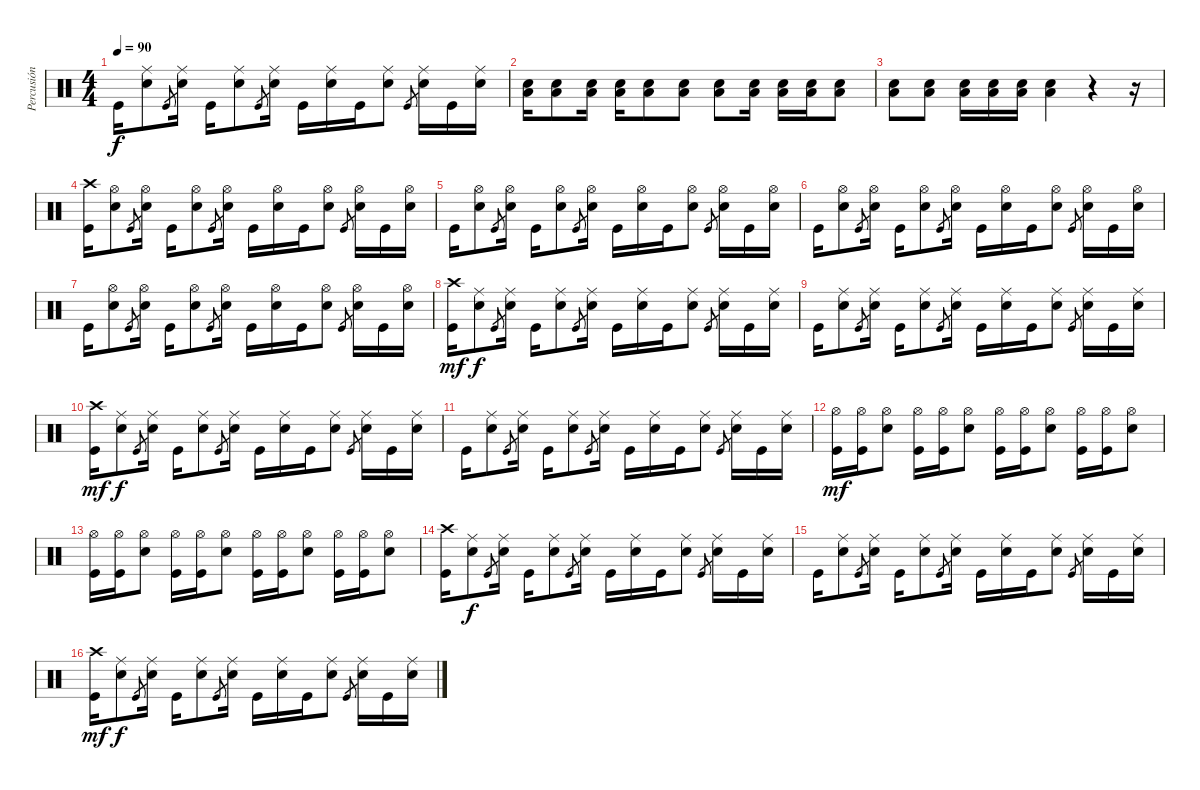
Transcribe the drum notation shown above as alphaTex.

\track ("Percusión" "Percusión") {instrument percussion}
\staff {score}
\articulation defaults
\ts (4 4)
\tempo 90
\clef neutral
\ks c "Kick (hit)".16{dy f}
("Snare (hit) 2" "Ride (middle)").8 "Kick (hit)".8{gr} ("Snare (hit) 2" "Ride (middle)").16 "Kick (hit)".16 ("Snare (hit) 2" "Ride (middle)").8 "Kick (hit)".8{gr} ("Snare (hit) 2" "Ride (middle)").16 "Kick (hit)".16 ("Snare (hit) 2" "Ride (middle)").16 "Kick (hit)".16 ("Snare (hit) 2" "Ride (middle)").8 "Kick (hit)".8{gr} ("Snare (hit) 2" "Ride (middle)").16 "Kick (hit)".16 ("Snare (hit) 2" "Ride (middle)").16 |
("Snare (hit) 2" "Low Floor Tom (hit)").16 ("Snare (hit) 2" "Low Floor Tom (hit)").8 ("Snare (hit) 2" "Low Floor Tom (hit)").16 ("Snare (hit) 2" "Low Floor Tom (hit)").16 ("Snare (hit) 2" "Low Floor Tom (hit)").8 ("Snare (hit) 2" "Low Floor Tom (hit)").8 ("Snare (hit) 2" "Low Floor Tom (hit)").8 ("Snare (hit) 2" "Low Floor Tom (hit)").16 ("Snare (hit) 2" "Low Floor Tom (hit)").16 ("Snare (hit) 2" "Low Floor Tom (hit)").16 ("Snare (hit) 2" "Low Floor Tom (hit)").8 |
("Snare (hit) 2" "Low Floor Tom (hit)").8 ("Snare (hit) 2" "Low Floor Tom (hit)").8 ("Snare (hit) 2" "Low Floor Tom (hit)").16 ("Snare (hit) 2" "Low Floor Tom (hit)").16 ("Snare (hit) 2" "Low Floor Tom (hit)").16 ("Snare (hit) 2" "Low Floor Tom (hit)").4 r.4 r.16 |
("Kick (hit)" "Crash high (hit)").16 ("Snare (hit) 2" "Hi-Hat (open)").8 "Kick (hit)".8{gr} ("Snare (hit) 2" "Hi-Hat (open)").16 "Kick (hit)".16 ("Snare (hit) 2" "Hi-Hat (open)").8 "Kick (hit)".8{gr} ("Snare (hit) 2" "Hi-Hat (open)").16 "Kick (hit)".16 ("Snare (hit) 2" "Hi-Hat (open)").16 "Kick (hit)".16 ("Snare (hit) 2" "Hi-Hat (open)").8 "Kick (hit)".8{gr} ("Snare (hit) 2" "Hi-Hat (open)").16 "Kick (hit)".16 ("Snare (hit) 2" "Hi-Hat (open)").16 |
"Kick (hit)".16 ("Snare (hit) 2" "Hi-Hat (open)").8 "Kick (hit)".8{gr} ("Snare (hit) 2" "Hi-Hat (open)").16 "Kick (hit)".16 ("Snare (hit) 2" "Hi-Hat (open)").8 "Kick (hit)".8{gr} ("Snare (hit) 2" "Hi-Hat (open)").16 "Kick (hit)".16 ("Snare (hit) 2" "Hi-Hat (open)").16 "Kick (hit)".16 ("Snare (hit) 2" "Hi-Hat (open)").8 "Kick (hit)".8{gr} ("Snare (hit) 2" "Hi-Hat (open)").16 "Kick (hit)".16 ("Snare (hit) 2" "Hi-Hat (open)").16 |
"Kick (hit)".16 ("Snare (hit) 2" "Hi-Hat (open)").8 "Kick (hit)".8{gr} ("Snare (hit) 2" "Hi-Hat (open)").16 "Kick (hit)".16 ("Snare (hit) 2" "Hi-Hat (open)").8 "Kick (hit)".8{gr} ("Snare (hit) 2" "Hi-Hat (open)").16 "Kick (hit)".16 ("Snare (hit) 2" "Hi-Hat (open)").16 "Kick (hit)".16 ("Snare (hit) 2" "Hi-Hat (open)").8 "Kick (hit)".8{gr} ("Snare (hit) 2" "Hi-Hat (open)").16 "Kick (hit)".16 ("Snare (hit) 2" "Hi-Hat (open)").16 |
"Kick (hit)".16 ("Snare (hit) 2" "Hi-Hat (open)").8 "Kick (hit)".8{gr} ("Snare (hit) 2" "Hi-Hat (open)").16 "Kick (hit)".16 ("Snare (hit) 2" "Hi-Hat (open)").8 "Kick (hit)".8{gr} ("Snare (hit) 2" "Hi-Hat (open)").16 "Kick (hit)".16 ("Snare (hit) 2" "Hi-Hat (open)").16 "Kick (hit)".16 ("Snare (hit) 2" "Hi-Hat (open)").8 "Kick (hit)".8{gr} ("Snare (hit) 2" "Hi-Hat (open)").16 "Kick (hit)".16 ("Snare (hit) 2" "Hi-Hat (open)").16 |
("Kick (hit)" "Crash high (hit)").16{dy mf} ("Snare (hit) 2" "Ride (middle)").8{dy f} "Kick (hit)".8{gr} ("Snare (hit) 2" "Ride (middle)").16 "Kick (hit)".16 ("Snare (hit) 2" "Ride (middle)").8 "Kick (hit)".8{gr} ("Snare (hit) 2" "Ride (middle)").16 "Kick (hit)".16 ("Snare (hit) 2" "Ride (middle)").16 "Kick (hit)".16 ("Snare (hit) 2" "Ride (middle)").8 "Kick (hit)".8{gr} ("Snare (hit) 2" "Ride (middle)").16 "Kick (hit)".16 ("Snare (hit) 2" "Ride (middle)").16 |
"Kick (hit)".16 ("Snare (hit) 2" "Ride (middle)").8 "Kick (hit)".8{gr} ("Snare (hit) 2" "Ride (middle)").16 "Kick (hit)".16 ("Snare (hit) 2" "Ride (middle)").8 "Kick (hit)".8{gr} ("Snare (hit) 2" "Ride (middle)").16 "Kick (hit)".16 ("Snare (hit) 2" "Ride (middle)").16 "Kick (hit)".16 ("Snare (hit) 2" "Ride (middle)").8 "Kick (hit)".8{gr} ("Snare (hit) 2" "Ride (middle)").16 "Kick (hit)".16 ("Snare (hit) 2" "Ride (middle)").16 |
("Kick (hit)" "Crash high (hit)").16{dy mf} ("Snare (hit) 2" "Ride (middle)").8{dy f} "Kick (hit)".8{gr} ("Snare (hit) 2" "Ride (middle)").16 "Kick (hit)".16 ("Snare (hit) 2" "Ride (middle)").8 "Kick (hit)".8{gr} ("Snare (hit) 2" "Ride (middle)").16 "Kick (hit)".16 ("Snare (hit) 2" "Ride (middle)").16 "Kick (hit)".16 ("Snare (hit) 2" "Ride (middle)").8 "Kick (hit)".8{gr} ("Snare (hit) 2" "Ride (middle)").16 "Kick (hit)".16 ("Snare (hit) 2" "Ride (middle)").16 |
"Kick (hit)".16 ("Snare (hit) 2" "Ride (middle)").8 "Kick (hit)".8{gr} ("Snare (hit) 2" "Ride (middle)").16 "Kick (hit)".16 ("Snare (hit) 2" "Ride (middle)").8 "Kick (hit)".8{gr} ("Snare (hit) 2" "Ride (middle)").16 "Kick (hit)".16 ("Snare (hit) 2" "Ride (middle)").16 "Kick (hit)".16 ("Snare (hit) 2" "Ride (middle)").8 "Kick (hit)".8{gr} ("Snare (hit) 2" "Ride (middle)").16 "Kick (hit)".16 ("Snare (hit) 2" "Ride (middle)").16 |
("Kick (hit)" "Hi-Hat (open)").16{dy mf} ("Kick (hit)" "Hi-Hat (open)").16 ("Snare (hit) 2" "Hi-Hat (open)").8 ("Kick (hit)" "Hi-Hat (open)").16 ("Kick (hit)" "Hi-Hat (open)").16 ("Snare (hit) 2" "Hi-Hat (open)").8 ("Kick (hit)" "Hi-Hat (open)").16 ("Kick (hit)" "Hi-Hat (open)").16 ("Snare (hit) 2" "Hi-Hat (open)").8 ("Kick (hit)" "Hi-Hat (open)").16 ("Kick (hit)" "Hi-Hat (open)").16 ("Snare (hit) 2" "Hi-Hat (open)").8 |
("Kick (hit)" "Hi-Hat (open)").16 ("Kick (hit)" "Hi-Hat (open)").16 ("Snare (hit) 2" "Hi-Hat (open)").8 ("Kick (hit)" "Hi-Hat (open)").16 ("Kick (hit)" "Hi-Hat (open)").16 ("Snare (hit) 2" "Hi-Hat (open)").8 ("Kick (hit)" "Hi-Hat (open)").16 ("Kick (hit)" "Hi-Hat (open)").16 ("Snare (hit) 2" "Hi-Hat (open)").8 ("Kick (hit)" "Hi-Hat (open)").16 ("Kick (hit)" "Hi-Hat (open)").16 ("Snare (hit) 2" "Hi-Hat (open)").8 |
("Kick (hit)" "Crash high (hit)").16 ("Snare (hit) 2" "Ride (middle)").8{dy f} "Kick (hit)".8{gr} ("Snare (hit) 2" "Ride (middle)").16 "Kick (hit)".16 ("Snare (hit) 2" "Ride (middle)").8 "Kick (hit)".8{gr} ("Snare (hit) 2" "Ride (middle)").16 "Kick (hit)".16 ("Snare (hit) 2" "Ride (middle)").16 "Kick (hit)".16 ("Snare (hit) 2" "Ride (middle)").8 "Kick (hit)".8{gr} ("Snare (hit) 2" "Ride (middle)").16 "Kick (hit)".16 ("Snare (hit) 2" "Ride (middle)").16 |
"Kick (hit)".16 ("Snare (hit) 2" "Ride (middle)").8 "Kick (hit)".8{gr} ("Snare (hit) 2" "Ride (middle)").16 "Kick (hit)".16 ("Snare (hit) 2" "Ride (middle)").8 "Kick (hit)".8{gr} ("Snare (hit) 2" "Ride (middle)").16 "Kick (hit)".16 ("Snare (hit) 2" "Ride (middle)").16 "Kick (hit)".16 ("Snare (hit) 2" "Ride (middle)").8 "Kick (hit)".8{gr} ("Snare (hit) 2" "Ride (middle)").16 "Kick (hit)".16 ("Snare (hit) 2" "Ride (middle)").16 |
("Kick (hit)" "Crash high (hit)").16{dy mf} ("Snare (hit) 2" "Ride (middle)").8{dy f} "Kick (hit)".8{gr} ("Snare (hit) 2" "Ride (middle)").16 "Kick (hit)".16 ("Snare (hit) 2" "Ride (middle)").8 "Kick (hit)".8{gr} ("Snare (hit) 2" "Ride (middle)").16 "Kick (hit)".16 ("Snare (hit) 2" "Ride (middle)").16 "Kick (hit)".16 ("Snare (hit) 2" "Ride (middle)").8 "Kick (hit)".8{gr} ("Snare (hit) 2" "Ride (middle)").16 "Kick (hit)".16 ("Snare (hit) 2" "Ride (middle)").16
